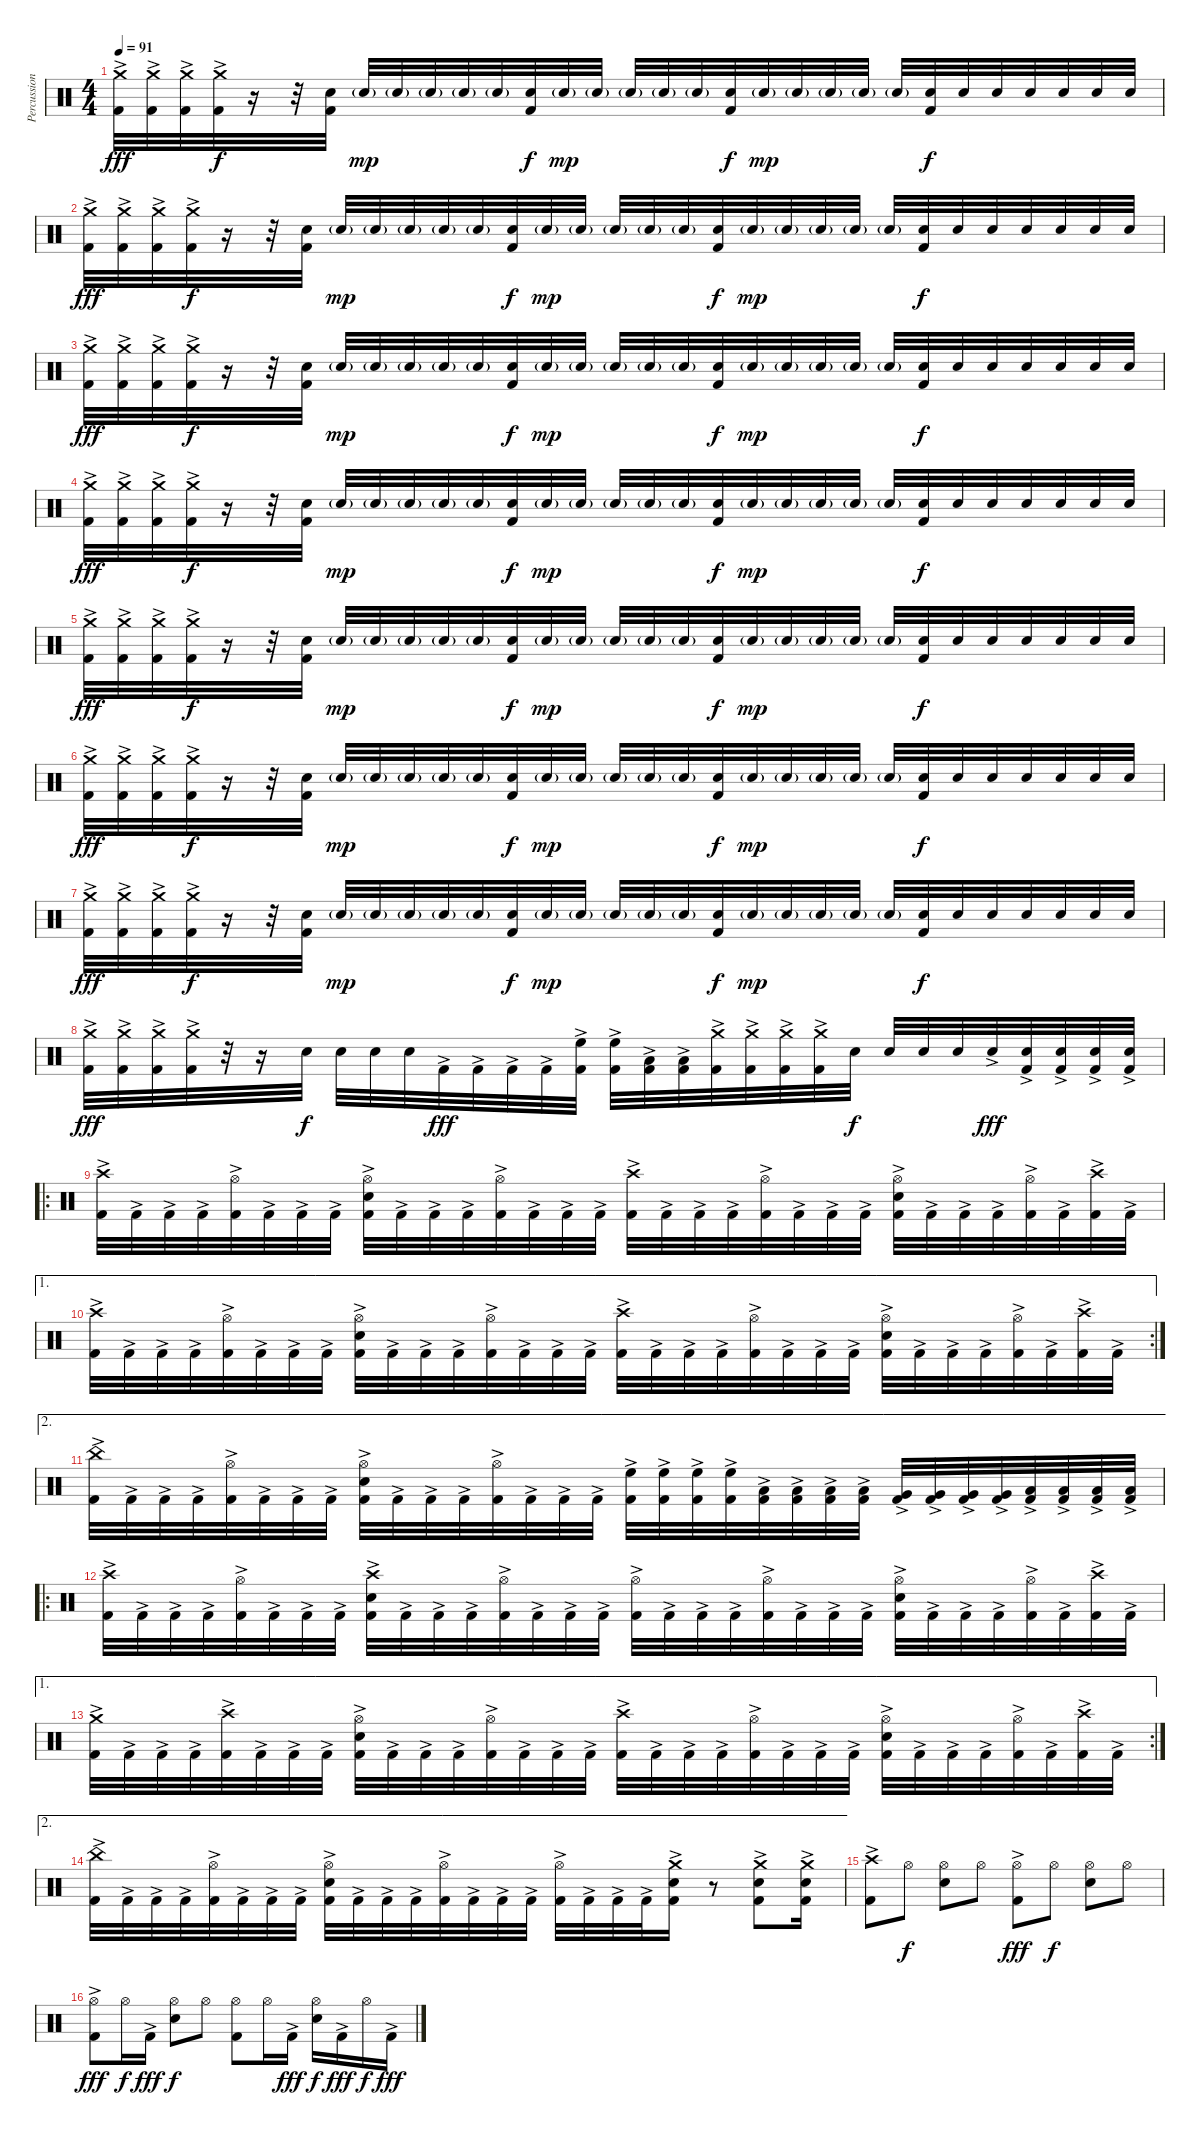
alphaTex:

\track ("Percussion" "Percussion") {instrument percussion}
\staff {score}
\articulation defaults
\ts (4 4)
\tempo 91
\clef neutral
\ks c
("Crash medium (hit)" "Kick (hit) 2"{ac}).32{dy fff} ("Crash medium (hit)"{ac} "Kick (hit) 2").32 ("Crash medium (hit)"{ac} "Kick (hit) 2").32 ("Crash medium (hit)"{ac} "Kick (hit) 2").32{dy f} r.16 r.32 ("Electric Snare (hit)" "Kick (hit) 2").32 "Electric Snare (hit)"{g}.32{dy mp} "Electric Snare (hit)"{g}.32 "Electric Snare (hit)"{g}.32 "Electric Snare (hit)"{g}.32 "Electric Snare (hit)"{g}.32 ("Electric Snare (hit)" "Kick (hit) 2").32{dy f} "Electric Snare (hit)"{g}.32{dy mp} "Electric Snare (hit)"{g}.32 "Electric Snare (hit)"{g}.32 "Electric Snare (hit)"{g}.32 "Electric Snare (hit)"{g}.32 ("Electric Snare (hit)" "Kick (hit) 2").32{dy f} "Electric Snare (hit)"{g}.32{dy mp} "Electric Snare (hit)"{g}.32 "Electric Snare (hit)"{g}.32 "Electric Snare (hit)"{g}.32 "Electric Snare (hit)"{g}.32 ("Electric Snare (hit)" "Kick (hit) 2").32{dy f} "Electric Snare (hit)".32 "Electric Snare (hit)".32 "Electric Snare (hit)".32 "Electric Snare (hit)".32 "Electric Snare (hit)".32 "Electric Snare (hit)".32 |
("Crash medium (hit)" "Kick (hit) 2"{ac}).32{dy fff} ("Crash medium (hit)"{ac} "Kick (hit) 2").32 ("Crash medium (hit)"{ac} "Kick (hit) 2").32 ("Crash medium (hit)"{ac} "Kick (hit) 2").32{dy f} r.16 r.32 ("Electric Snare (hit)" "Kick (hit) 2").32 "Electric Snare (hit)"{g}.32{dy mp} "Electric Snare (hit)"{g}.32 "Electric Snare (hit)"{g}.32 "Electric Snare (hit)"{g}.32 "Electric Snare (hit)"{g}.32 ("Electric Snare (hit)" "Kick (hit) 2").32{dy f} "Electric Snare (hit)"{g}.32{dy mp} "Electric Snare (hit)"{g}.32 "Electric Snare (hit)"{g}.32 "Electric Snare (hit)"{g}.32 "Electric Snare (hit)"{g}.32 ("Electric Snare (hit)" "Kick (hit) 2").32{dy f} "Electric Snare (hit)"{g}.32{dy mp} "Electric Snare (hit)"{g}.32 "Electric Snare (hit)"{g}.32 "Electric Snare (hit)"{g}.32 "Electric Snare (hit)"{g}.32 ("Electric Snare (hit)" "Kick (hit) 2").32{dy f} "Electric Snare (hit)".32 "Electric Snare (hit)".32 "Electric Snare (hit)".32 "Electric Snare (hit)".32 "Electric Snare (hit)".32 "Electric Snare (hit)".32 |
("Crash medium (hit)" "Kick (hit) 2"{ac}).32{dy fff} ("Crash medium (hit)"{ac} "Kick (hit) 2").32 ("Crash medium (hit)"{ac} "Kick (hit) 2").32 ("Crash medium (hit)"{ac} "Kick (hit) 2").32{dy f} r.16 r.32 ("Electric Snare (hit)" "Kick (hit) 2").32 "Electric Snare (hit)"{g}.32{dy mp} "Electric Snare (hit)"{g}.32 "Electric Snare (hit)"{g}.32 "Electric Snare (hit)"{g}.32 "Electric Snare (hit)"{g}.32 ("Electric Snare (hit)" "Kick (hit) 2").32{dy f} "Electric Snare (hit)"{g}.32{dy mp} "Electric Snare (hit)"{g}.32 "Electric Snare (hit)"{g}.32 "Electric Snare (hit)"{g}.32 "Electric Snare (hit)"{g}.32 ("Electric Snare (hit)" "Kick (hit) 2").32{dy f} "Electric Snare (hit)"{g}.32{dy mp} "Electric Snare (hit)"{g}.32 "Electric Snare (hit)"{g}.32 "Electric Snare (hit)"{g}.32 "Electric Snare (hit)"{g}.32 ("Electric Snare (hit)" "Kick (hit) 2").32{dy f} "Electric Snare (hit)".32 "Electric Snare (hit)".32 "Electric Snare (hit)".32 "Electric Snare (hit)".32 "Electric Snare (hit)".32 "Electric Snare (hit)".32 |
("Crash medium (hit)" "Kick (hit) 2"{ac}).32{dy fff} ("Crash medium (hit)"{ac} "Kick (hit) 2").32 ("Crash medium (hit)"{ac} "Kick (hit) 2").32 ("Crash medium (hit)"{ac} "Kick (hit) 2").32{dy f} r.16 r.32 ("Electric Snare (hit)" "Kick (hit) 2").32 "Electric Snare (hit)"{g}.32{dy mp} "Electric Snare (hit)"{g}.32 "Electric Snare (hit)"{g}.32 "Electric Snare (hit)"{g}.32 "Electric Snare (hit)"{g}.32 ("Electric Snare (hit)" "Kick (hit) 2").32{dy f} "Electric Snare (hit)"{g}.32{dy mp} "Electric Snare (hit)"{g}.32 "Electric Snare (hit)"{g}.32 "Electric Snare (hit)"{g}.32 "Electric Snare (hit)"{g}.32 ("Electric Snare (hit)" "Kick (hit) 2").32{dy f} "Electric Snare (hit)"{g}.32{dy mp} "Electric Snare (hit)"{g}.32 "Electric Snare (hit)"{g}.32 "Electric Snare (hit)"{g}.32 "Electric Snare (hit)"{g}.32 ("Electric Snare (hit)" "Kick (hit) 2").32{dy f} "Electric Snare (hit)".32 "Electric Snare (hit)".32 "Electric Snare (hit)".32 "Electric Snare (hit)".32 "Electric Snare (hit)".32 "Electric Snare (hit)".32 |
("Crash medium (hit)" "Kick (hit) 2"{ac}).32{dy fff} ("Crash medium (hit)"{ac} "Kick (hit) 2").32 ("Crash medium (hit)"{ac} "Kick (hit) 2").32 ("Crash medium (hit)"{ac} "Kick (hit) 2").32{dy f} r.16 r.32 ("Electric Snare (hit)" "Kick (hit) 2").32 "Electric Snare (hit)"{g}.32{dy mp} "Electric Snare (hit)"{g}.32 "Electric Snare (hit)"{g}.32 "Electric Snare (hit)"{g}.32 "Electric Snare (hit)"{g}.32 ("Electric Snare (hit)" "Kick (hit) 2").32{dy f} "Electric Snare (hit)"{g}.32{dy mp} "Electric Snare (hit)"{g}.32 "Electric Snare (hit)"{g}.32 "Electric Snare (hit)"{g}.32 "Electric Snare (hit)"{g}.32 ("Electric Snare (hit)" "Kick (hit) 2").32{dy f} "Electric Snare (hit)"{g}.32{dy mp} "Electric Snare (hit)"{g}.32 "Electric Snare (hit)"{g}.32 "Electric Snare (hit)"{g}.32 "Electric Snare (hit)"{g}.32 ("Electric Snare (hit)" "Kick (hit) 2").32{dy f} "Electric Snare (hit)".32 "Electric Snare (hit)".32 "Electric Snare (hit)".32 "Electric Snare (hit)".32 "Electric Snare (hit)".32 "Electric Snare (hit)".32 |
("Crash medium (hit)" "Kick (hit) 2"{ac}).32{dy fff} ("Crash medium (hit)"{ac} "Kick (hit) 2").32 ("Crash medium (hit)"{ac} "Kick (hit) 2").32 ("Crash medium (hit)"{ac} "Kick (hit) 2").32{dy f} r.16 r.32 ("Electric Snare (hit)" "Kick (hit) 2").32 "Electric Snare (hit)"{g}.32{dy mp} "Electric Snare (hit)"{g}.32 "Electric Snare (hit)"{g}.32 "Electric Snare (hit)"{g}.32 "Electric Snare (hit)"{g}.32 ("Electric Snare (hit)" "Kick (hit) 2").32{dy f} "Electric Snare (hit)"{g}.32{dy mp} "Electric Snare (hit)"{g}.32 "Electric Snare (hit)"{g}.32 "Electric Snare (hit)"{g}.32 "Electric Snare (hit)"{g}.32 ("Electric Snare (hit)" "Kick (hit) 2").32{dy f} "Electric Snare (hit)"{g}.32{dy mp} "Electric Snare (hit)"{g}.32 "Electric Snare (hit)"{g}.32 "Electric Snare (hit)"{g}.32 "Electric Snare (hit)"{g}.32 ("Electric Snare (hit)" "Kick (hit) 2").32{dy f} "Electric Snare (hit)".32 "Electric Snare (hit)".32 "Electric Snare (hit)".32 "Electric Snare (hit)".32 "Electric Snare (hit)".32 "Electric Snare (hit)".32 |
("Crash medium (hit)" "Kick (hit) 2"{ac}).32{dy fff} ("Crash medium (hit)"{ac} "Kick (hit) 2").32 ("Crash medium (hit)"{ac} "Kick (hit) 2").32 ("Crash medium (hit)"{ac} "Kick (hit) 2").32{dy f} r.16 r.32 ("Electric Snare (hit)" "Kick (hit) 2").32 "Electric Snare (hit)"{g}.32{dy mp} "Electric Snare (hit)"{g}.32 "Electric Snare (hit)"{g}.32 "Electric Snare (hit)"{g}.32 "Electric Snare (hit)"{g}.32 ("Electric Snare (hit)" "Kick (hit) 2").32{dy f} "Electric Snare (hit)"{g}.32{dy mp} "Electric Snare (hit)"{g}.32 "Electric Snare (hit)"{g}.32 "Electric Snare (hit)"{g}.32 "Electric Snare (hit)"{g}.32 ("Electric Snare (hit)" "Kick (hit) 2").32{dy f} "Electric Snare (hit)"{g}.32{dy mp} "Electric Snare (hit)"{g}.32 "Electric Snare (hit)"{g}.32 "Electric Snare (hit)"{g}.32 "Electric Snare (hit)"{g}.32 ("Electric Snare (hit)" "Kick (hit) 2").32{dy f} "Electric Snare (hit)".32 "Electric Snare (hit)".32 "Electric Snare (hit)".32 "Electric Snare (hit)".32 "Electric Snare (hit)".32 "Electric Snare (hit)".32 |
("Crash medium (hit)" "Kick (hit) 2"{ac}).32{dy fff} ("Crash medium (hit)" "Kick (hit) 2"{ac}).32 ("Crash medium (hit)" "Kick (hit) 2"{ac}).32 ("Crash medium (hit)" "Kick (hit) 2"{ac}).32 r.32 r.16 "Electric Snare (hit)".32{dy f} "Electric Snare (hit)".32 "Electric Snare (hit)".32 "Electric Snare (hit)".32 "Kick (hit) 2"{ac}.32{dy fff} "Kick (hit) 2"{ac}.32 "Kick (hit) 2"{ac}.32 "Kick (hit) 2"{ac}.32 ("High Floor Tom (hit)" "Kick (hit) 2"{ac}).32 ("High Floor Tom (hit)" "Kick (hit) 2"{ac}).32 ("Low Tom (hit)" "Kick (hit) 2"{ac}).32 ("Low Tom (hit)" "Kick (hit) 2"{ac}).32 ("Crash medium (hit)" "Kick (hit) 2"{ac}).32 ("Crash medium (hit)" "Kick (hit) 2"{ac}).32 ("Crash medium (hit)" "Kick (hit) 2"{ac}).32 ("Crash medium (hit)" "Kick (hit) 2"{ac}).32 "Electric Snare (hit)".32{dy f} "Electric Snare (hit)".32 "Electric Snare (hit)".32 "Electric Snare (hit)".32 "Electric Snare (hit)"{ac}.32{dy fff} ("Electric Snare (hit)"{ac} "Kick (hit) 2"{ac}).32 ("Electric Snare (hit)"{ac} "Kick (hit) 2"{ac}).32 ("Electric Snare (hit)"{ac} "Kick (hit) 2"{ac}).32 ("Electric Snare (hit)"{ac} "Kick (hit) 2"{ac}).32 |
\ro
("Crash high (hit)" "Kick (hit) 2"{ac}).32 "Kick (hit) 2"{ac}.32 "Kick (hit) 2"{ac}.32 "Kick (hit) 2"{ac}.32 ("Hi-Hat (open)" "Kick (hit) 2"{ac}).32 "Kick (hit) 2"{ac}.32 "Kick (hit) 2"{ac}.32 "Kick (hit) 2"{ac}.32 ("Hi-Hat (open)" "Electric Snare (hit)" "Kick (hit) 2"{ac}).32 "Kick (hit) 2"{ac}.32 "Kick (hit) 2"{ac}.32 "Kick (hit) 2"{ac}.32 ("Hi-Hat (open)" "Kick (hit) 2"{ac}).32 "Kick (hit) 2"{ac}.32 "Kick (hit) 2"{ac}.32 "Kick (hit) 2"{ac}.32 ("Crash high (hit)" "Kick (hit) 2"{ac}).32 "Kick (hit) 2"{ac}.32 "Kick (hit) 2"{ac}.32 "Kick (hit) 2"{ac}.32 ("Hi-Hat (open)" "Kick (hit) 2"{ac}).32 "Kick (hit) 2"{ac}.32 "Kick (hit) 2"{ac}.32 "Kick (hit) 2"{ac}.32 ("Hi-Hat (open)" "Electric Snare (hit)" "Kick (hit) 2"{ac}).32 "Kick (hit) 2"{ac}.32 "Kick (hit) 2"{ac}.32 "Kick (hit) 2"{ac}.32 ("Hi-Hat (open)" "Kick (hit) 2"{ac}).32 "Kick (hit) 2"{ac}.32 ("Crash high (hit)" "Kick (hit) 2"{ac}).32 "Kick (hit) 2"{ac}.32 |
\ae 1
\rc 2
("Crash high (hit)" "Kick (hit) 2"{ac}).32 "Kick (hit) 2"{ac}.32 "Kick (hit) 2"{ac}.32 "Kick (hit) 2"{ac}.32 ("Hi-Hat (open)" "Kick (hit) 2"{ac}).32 "Kick (hit) 2"{ac}.32 "Kick (hit) 2"{ac}.32 "Kick (hit) 2"{ac}.32 ("Hi-Hat (open)" "Electric Snare (hit)" "Kick (hit) 2"{ac}).32 "Kick (hit) 2"{ac}.32 "Kick (hit) 2"{ac}.32 "Kick (hit) 2"{ac}.32 ("Hi-Hat (open)" "Kick (hit) 2"{ac}).32 "Kick (hit) 2"{ac}.32 "Kick (hit) 2"{ac}.32 "Kick (hit) 2"{ac}.32 ("Crash high (hit)" "Kick (hit) 2"{ac}).32 "Kick (hit) 2"{ac}.32 "Kick (hit) 2"{ac}.32 "Kick (hit) 2"{ac}.32 ("Hi-Hat (open)" "Kick (hit) 2"{ac}).32 "Kick (hit) 2"{ac}.32 "Kick (hit) 2"{ac}.32 "Kick (hit) 2"{ac}.32 ("Hi-Hat (open)" "Electric Snare (hit)" "Kick (hit) 2"{ac}).32 "Kick (hit) 2"{ac}.32 "Kick (hit) 2"{ac}.32 "Kick (hit) 2"{ac}.32 ("Hi-Hat (open)" "Kick (hit) 2"{ac}).32 "Kick (hit) 2"{ac}.32 ("Crash high (hit)" "Kick (hit) 2"{ac}).32 "Kick (hit) 2"{ac}.32 |
\ae 2
("China (hit)" "Kick (hit) 2"{ac}).32 "Kick (hit) 2"{ac}.32 "Kick (hit) 2"{ac}.32 "Kick (hit) 2"{ac}.32 ("Hi-Hat (open)" "Kick (hit) 2"{ac}).32 "Kick (hit) 2"{ac}.32 "Kick (hit) 2"{ac}.32 "Kick (hit) 2"{ac}.32 ("Hi-Hat (open)" "Electric Snare (hit)" "Kick (hit) 2"{ac}).32 "Kick (hit) 2"{ac}.32 "Kick (hit) 2"{ac}.32 "Kick (hit) 2"{ac}.32 ("Hi-Hat (open)" "Kick (hit) 2"{ac}).32 "Kick (hit) 2"{ac}.32 "Kick (hit) 2"{ac}.32 "Kick (hit) 2"{ac}.32 ("High Floor Tom (hit)" "Kick (hit) 2"{ac}).32 ("High Floor Tom (hit)" "Kick (hit) 2"{ac}).32 ("High Floor Tom (hit)" "Kick (hit) 2"{ac}).32 ("High Floor Tom (hit)" "Kick (hit) 2"{ac}).32 ("Low Tom (hit)" "Kick (hit) 2"{ac}).32 ("Low Tom (hit)" "Kick (hit) 2"{ac}).32 ("Low Tom (hit)" "Kick (hit) 2"{ac}).32 ("Low Tom (hit)" "Kick (hit) 2"{ac}).32 ("Very Low Tom (hit)" "Kick (hit) 2"{ac}).32 ("Very Low Tom (hit)" "Kick (hit) 2"{ac}).32 ("Very Low Tom (hit)" "Kick (hit) 2"{ac}).32 ("Very Low Tom (hit)" "Kick (hit) 2"{ac}).32 ("Low Floor Tom (hit)" "Kick (hit) 2"{ac}).32 ("Low Floor Tom (hit)" "Kick (hit) 2"{ac}).32 ("Low Floor Tom (hit)" "Kick (hit) 2"{ac}).32 ("Low Floor Tom (hit)" "Kick (hit) 2"{ac}).32 |
\ro
("Crash high (hit)" "Kick (hit) 2"{ac}).32 "Kick (hit) 2"{ac}.32 "Kick (hit) 2"{ac}.32 "Kick (hit) 2"{ac}.32 ("Hi-Hat (open)" "Kick (hit) 2"{ac}).32 "Kick (hit) 2"{ac}.32 "Kick (hit) 2"{ac}.32 "Kick (hit) 2"{ac}.32 ("Crash high (hit)" "Electric Snare (hit)" "Kick (hit) 2"{ac}).32 "Kick (hit) 2"{ac}.32 "Kick (hit) 2"{ac}.32 "Kick (hit) 2"{ac}.32 ("Hi-Hat (open)" "Kick (hit) 2"{ac}).32 "Kick (hit) 2"{ac}.32 "Kick (hit) 2"{ac}.32 "Kick (hit) 2"{ac}.32 ("Hi-Hat (open)" "Kick (hit) 2"{ac}).32 "Kick (hit) 2"{ac}.32 "Kick (hit) 2"{ac}.32 "Kick (hit) 2"{ac}.32 ("Hi-Hat (open)" "Kick (hit) 2"{ac}).32 "Kick (hit) 2"{ac}.32 "Kick (hit) 2"{ac}.32 "Kick (hit) 2"{ac}.32 ("Hi-Hat (open)" "Electric Snare (hit)" "Kick (hit) 2"{ac}).32 "Kick (hit) 2"{ac}.32 "Kick (hit) 2"{ac}.32 "Kick (hit) 2"{ac}.32 ("Hi-Hat (open)" "Kick (hit) 2"{ac}).32 "Kick (hit) 2"{ac}.32 ("Crash high (hit)" "Kick (hit) 2"{ac}).32 "Kick (hit) 2"{ac}.32 |
\ae 1
\rc 2
("Crash medium (hit)" "Kick (hit) 2"{ac}).32 "Kick (hit) 2"{ac}.32 "Kick (hit) 2"{ac}.32 "Kick (hit) 2"{ac}.32 ("Crash high (hit)" "Kick (hit) 2"{ac}).32 "Kick (hit) 2"{ac}.32 "Kick (hit) 2"{ac}.32 "Kick (hit) 2"{ac}.32 ("Hi-Hat (open)" "Electric Snare (hit)" "Kick (hit) 2"{ac}).32 "Kick (hit) 2"{ac}.32 "Kick (hit) 2"{ac}.32 "Kick (hit) 2"{ac}.32 ("Hi-Hat (open)" "Kick (hit) 2"{ac}).32 "Kick (hit) 2"{ac}.32 "Kick (hit) 2"{ac}.32 "Kick (hit) 2"{ac}.32 ("Crash high (hit)" "Kick (hit) 2"{ac}).32 "Kick (hit) 2"{ac}.32 "Kick (hit) 2"{ac}.32 "Kick (hit) 2"{ac}.32 ("Hi-Hat (open)" "Kick (hit) 2"{ac}).32 "Kick (hit) 2"{ac}.32 "Kick (hit) 2"{ac}.32 "Kick (hit) 2"{ac}.32 ("Hi-Hat (open)" "Electric Snare (hit)" "Kick (hit) 2"{ac}).32 "Kick (hit) 2"{ac}.32 "Kick (hit) 2"{ac}.32 "Kick (hit) 2"{ac}.32 ("Hi-Hat (open)" "Kick (hit) 2"{ac}).32 "Kick (hit) 2"{ac}.32 ("Crash high (hit)" "Kick (hit) 2"{ac}).32 "Kick (hit) 2"{ac}.32 |
\ae 2
("China (hit)" "Kick (hit) 2"{ac}).32 "Kick (hit) 2"{ac}.32 "Kick (hit) 2"{ac}.32 "Kick (hit) 2"{ac}.32 ("Hi-Hat (open)" "Kick (hit) 2"{ac}).32 "Kick (hit) 2"{ac}.32 "Kick (hit) 2"{ac}.32 "Kick (hit) 2"{ac}.32 ("Hi-Hat (open)" "Electric Snare (hit)" "Kick (hit) 2"{ac}).32 "Kick (hit) 2"{ac}.32 "Kick (hit) 2"{ac}.32 "Kick (hit) 2"{ac}.32 ("Hi-Hat (open)" "Kick (hit) 2"{ac}).32 "Kick (hit) 2"{ac}.32 "Kick (hit) 2"{ac}.32 "Kick (hit) 2"{ac}.32 ("Hi-Hat (open)" "Kick (hit) 2"{ac}).32 "Kick (hit) 2"{ac}.32 "Kick (hit) 2"{ac}.32 "Kick (hit) 2"{ac}.32 ("Crash medium (hit)" "Electric Snare (hit)" "Kick (hit) 2"{ac}).16 r.8 ("Crash medium (hit)" "Electric Snare (hit)" "Kick (hit) 2"{ac}).8 ("Crash medium (hit)" "Electric Snare (hit)" "Kick (hit) 2"{ac}).16 |
("Crash high (hit)" "Kick (hit) 2"{ac}).8 "Hi-Hat (open)".8{dy f} ("Hi-Hat (open)" "Electric Snare (hit)").8 "Hi-Hat (open)".8 ("Hi-Hat (open)" "Kick (hit) 2"{ac}).8{dy fff} "Hi-Hat (open)".8{dy f} ("Hi-Hat (open)" "Electric Snare (hit)").8 "Hi-Hat (open)".8 |
("Hi-Hat (open)" "Kick (hit) 2"{ac}).8{dy fff} "Hi-Hat (open)".16{dy f} "Kick (hit) 2"{ac}.16{dy fff} ("Hi-Hat (open)" "Electric Snare (hit)").8{dy f} "Hi-Hat (open)".8 ("Hi-Hat (open)" "Kick (hit) 2").8 "Hi-Hat (open)".16 "Kick (hit) 2"{ac}.16{dy fff} ("Hi-Hat (open)" "Electric Snare (hit)").16{dy f} "Kick (hit) 2"{ac}.16{dy fff} "Hi-Hat (open)".16{dy f} "Kick (hit) 2"{ac}.16{dy fff}
